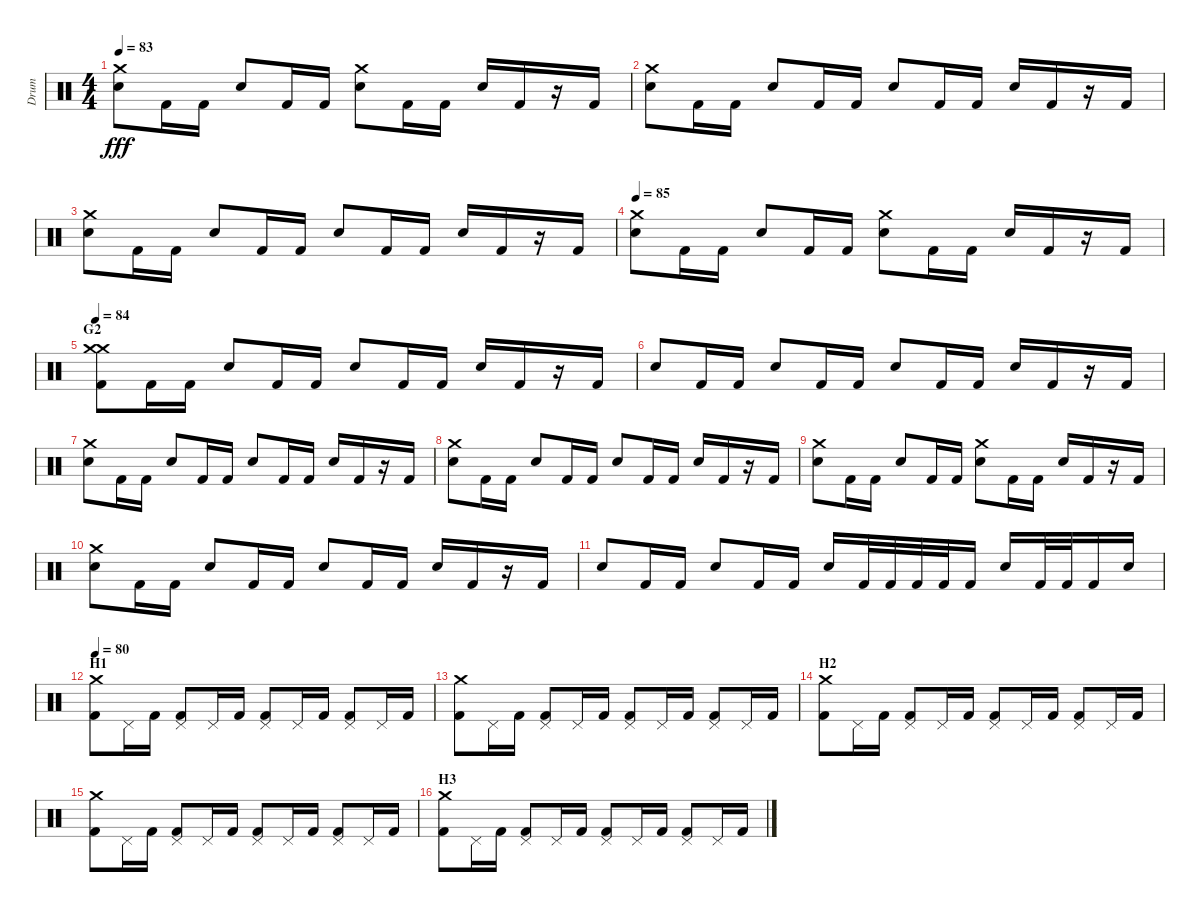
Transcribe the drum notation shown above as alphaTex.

\track ("Drum" "Drum") {instrument percussion}
\staff {score}
\articulation defaults
\ts (4 4)
\tempo 83
\clef neutral
\ks c
("Electric Snare (hit)" "Crash medium (hit)").8{dy fff} "Kick (hit) 2".16 "Kick (hit) 2".16 "Electric Snare (hit)".8 "Kick (hit) 2".16 "Kick (hit) 2".16 ("Electric Snare (hit)" "Crash medium (hit)").8 "Kick (hit) 2".16 "Kick (hit) 2".16 "Electric Snare (hit)".16 "Kick (hit) 2".16 r.16 "Kick (hit) 2".16 |
("Electric Snare (hit)" "Crash medium (hit)").8 "Kick (hit) 2".16 "Kick (hit) 2".16 "Electric Snare (hit)".8 "Kick (hit) 2".16 "Kick (hit) 2".16 "Electric Snare (hit)".8 "Kick (hit) 2".16 "Kick (hit) 2".16 "Electric Snare (hit)".16 "Kick (hit) 2".16 r.16 "Kick (hit) 2".16 |
("Electric Snare (hit)" "Crash medium (hit)").8 "Kick (hit) 2".16 "Kick (hit) 2".16 "Electric Snare (hit)".8 "Kick (hit) 2".16 "Kick (hit) 2".16 "Electric Snare (hit)".8 "Kick (hit) 2".16 "Kick (hit) 2".16 "Electric Snare (hit)".16 "Kick (hit) 2".16 r.16 "Kick (hit) 2".16 |
\tempo 85
("Electric Snare (hit)" "Crash medium (hit)").8 "Kick (hit) 2".16 "Kick (hit) 2".16 "Electric Snare (hit)".8 "Kick (hit) 2".16 "Kick (hit) 2".16 ("Electric Snare (hit)" "Crash medium (hit)").8 "Kick (hit) 2".16 "Kick (hit) 2".16 "Electric Snare (hit)".16 "Kick (hit) 2".16 r.16 "Kick (hit) 2".16 |
\section ("" "G2")
\tempo 84
("Kick (hit) 2" "Crash medium (hit)" "Crash medium (hit)").8 "Kick (hit) 2".16 "Kick (hit) 2".16 "Electric Snare (hit)".8 "Kick (hit) 2".16 "Kick (hit) 2".16 "Electric Snare (hit)".8 "Kick (hit) 2".16 "Kick (hit) 2".16 "Electric Snare (hit)".16 "Kick (hit) 2".16 r.16 "Kick (hit) 2".16 |
"Electric Snare (hit)".8 "Kick (hit) 2".16 "Kick (hit) 2".16 "Electric Snare (hit)".8 "Kick (hit) 2".16 "Kick (hit) 2".16 "Electric Snare (hit)".8 "Kick (hit) 2".16 "Kick (hit) 2".16 "Electric Snare (hit)".16 "Kick (hit) 2".16 r.16 "Kick (hit) 2".16 |
("Electric Snare (hit)" "Crash medium (hit)").8 "Kick (hit) 2".16 "Kick (hit) 2".16 "Electric Snare (hit)".8 "Kick (hit) 2".16 "Kick (hit) 2".16 "Electric Snare (hit)".8 "Kick (hit) 2".16 "Kick (hit) 2".16 "Electric Snare (hit)".16 "Kick (hit) 2".16 r.16 "Kick (hit) 2".16 |
("Electric Snare (hit)" "Crash medium (hit)").8 "Kick (hit) 2".16 "Kick (hit) 2".16 "Electric Snare (hit)".8 "Kick (hit) 2".16 "Kick (hit) 2".16 "Electric Snare (hit)".8 "Kick (hit) 2".16 "Kick (hit) 2".16 "Electric Snare (hit)".16 "Kick (hit) 2".16 r.16 "Kick (hit) 2".16 |
("Electric Snare (hit)" "Crash medium (hit)").8 "Kick (hit) 2".16 "Kick (hit) 2".16 "Electric Snare (hit)".8 "Kick (hit) 2".16 "Kick (hit) 2".16 ("Electric Snare (hit)" "Crash medium (hit)").8 "Kick (hit) 2".16 "Kick (hit) 2".16 "Electric Snare (hit)".16 "Kick (hit) 2".16 r.16 "Kick (hit) 2".16 |
("Electric Snare (hit)" "Crash medium (hit)").8 "Kick (hit) 2".16 "Kick (hit) 2".16 "Electric Snare (hit)".8 "Kick (hit) 2".16 "Kick (hit) 2".16 "Electric Snare (hit)".8 "Kick (hit) 2".16 "Kick (hit) 2".16 "Electric Snare (hit)".16 "Kick (hit) 2".16 r.16 "Kick (hit) 2".16 |
"Electric Snare (hit)".8 "Kick (hit) 2".16 "Kick (hit) 2".16 "Electric Snare (hit)".8 "Kick (hit) 2".16 "Kick (hit) 2".16 "Electric Snare (hit)".16 "Kick (hit) 2".32 "Kick (hit) 2".32 "Kick (hit) 2".32 "Kick (hit) 2".32 "Kick (hit) 2".16 "Electric Snare (hit)".16 "Kick (hit) 2".32 "Kick (hit) 2".32 "Kick (hit) 2".16 "Electric Snare (hit)".16 |
\section ("" "H1")
\tempo 80
("Kick (hit) 2" "Crash medium (hit)").8 "Pedal Hi-Hat (hit)".16 "Kick (hit) 2".16 ("Kick (hit) 2" "Pedal Hi-Hat (hit)").8 "Pedal Hi-Hat (hit)".16 "Kick (hit) 2".16 ("Kick (hit) 2" "Pedal Hi-Hat (hit)").8 "Pedal Hi-Hat (hit)".16 "Kick (hit) 2".16 ("Kick (hit) 2" "Pedal Hi-Hat (hit)").8 "Pedal Hi-Hat (hit)".16 "Kick (hit) 2".16 |
("Kick (hit) 2" "Crash medium (hit)").8 "Pedal Hi-Hat (hit)".16 "Kick (hit) 2".16 ("Kick (hit) 2" "Pedal Hi-Hat (hit)").8 "Pedal Hi-Hat (hit)".16 "Kick (hit) 2".16 ("Kick (hit) 2" "Pedal Hi-Hat (hit)").8 "Pedal Hi-Hat (hit)".16 "Kick (hit) 2".16 ("Kick (hit) 2" "Pedal Hi-Hat (hit)").8 "Pedal Hi-Hat (hit)".16 "Kick (hit) 2".16 |
\section ("" "H2")
("Kick (hit) 2" "Crash medium (hit)").8 "Pedal Hi-Hat (hit)".16 "Kick (hit) 2".16 ("Kick (hit) 2" "Pedal Hi-Hat (hit)").8 "Pedal Hi-Hat (hit)".16 "Kick (hit) 2".16 ("Kick (hit) 2" "Pedal Hi-Hat (hit)").8 "Pedal Hi-Hat (hit)".16 "Kick (hit) 2".16 ("Kick (hit) 2" "Pedal Hi-Hat (hit)").8 "Pedal Hi-Hat (hit)".16 "Kick (hit) 2".16 |
("Kick (hit) 2" "Crash medium (hit)").8 "Pedal Hi-Hat (hit)".16 "Kick (hit) 2".16 ("Kick (hit) 2" "Pedal Hi-Hat (hit)").8 "Pedal Hi-Hat (hit)".16 "Kick (hit) 2".16 ("Kick (hit) 2" "Pedal Hi-Hat (hit)").8 "Pedal Hi-Hat (hit)".16 "Kick (hit) 2".16 ("Kick (hit) 2" "Pedal Hi-Hat (hit)").8 "Pedal Hi-Hat (hit)".16 "Kick (hit) 2".16 |
\section ("" "H3")
("Kick (hit) 2" "Crash medium (hit)").8 "Pedal Hi-Hat (hit)".16 "Kick (hit) 2".16 ("Kick (hit) 2" "Pedal Hi-Hat (hit)").8 "Pedal Hi-Hat (hit)".16 "Kick (hit) 2".16 ("Kick (hit) 2" "Pedal Hi-Hat (hit)").8 "Pedal Hi-Hat (hit)".16 "Kick (hit) 2".16 ("Kick (hit) 2" "Pedal Hi-Hat (hit)").8 "Pedal Hi-Hat (hit)".16 "Kick (hit) 2".16
